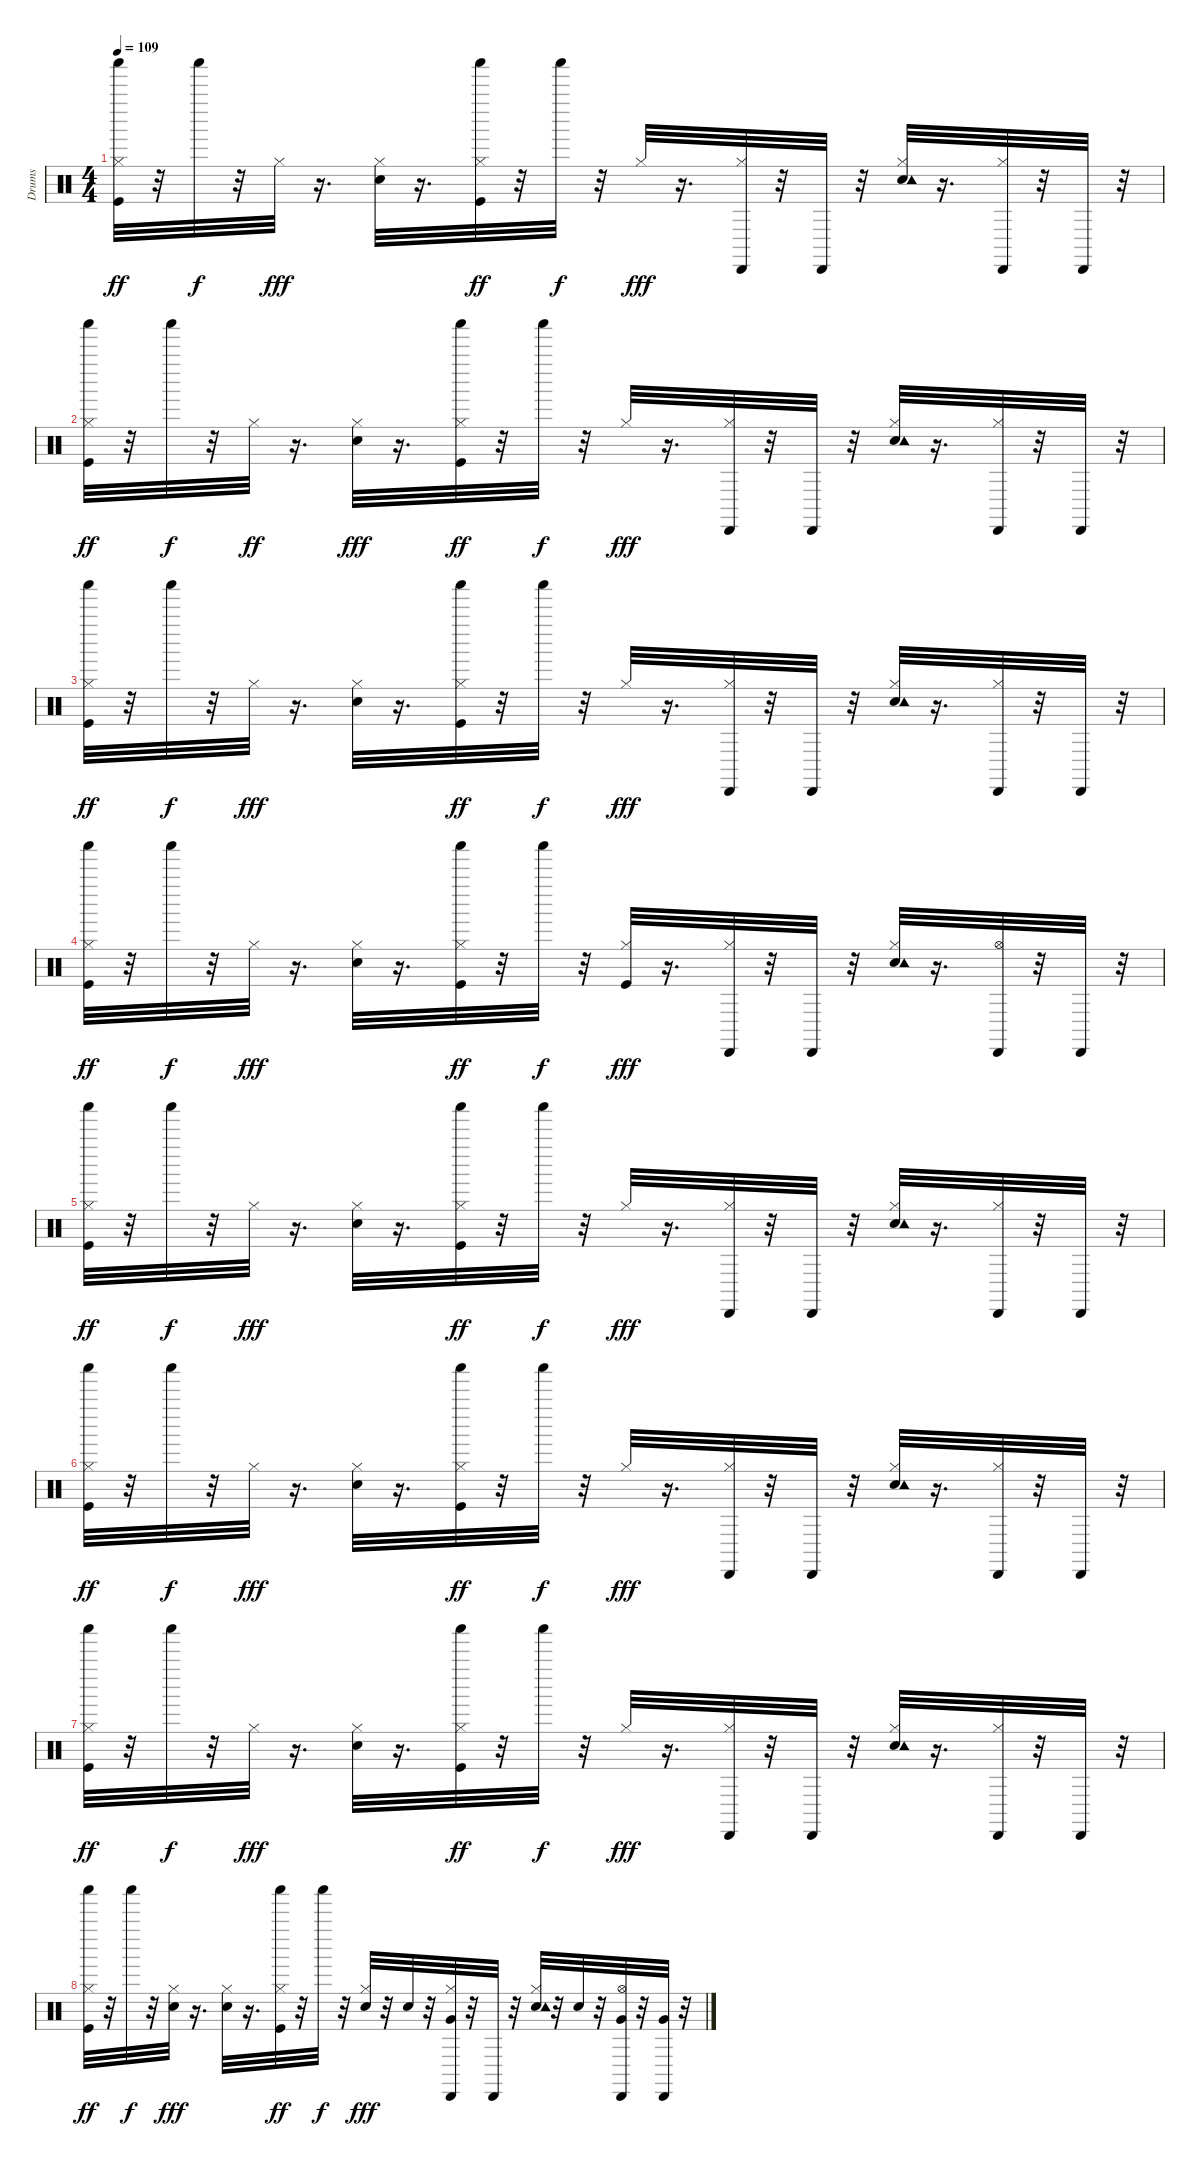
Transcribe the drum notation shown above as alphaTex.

\track ("Drums               " "Drums     ") {instrument percussion}
\staff {score}
\articulation defaults
\ts (4 4)
\tempo 109
\clef neutral
\ks c
("Kick (hit)" "Hi-Hat (closed)" "Shaker (hit)").32{dy ff} r.32 "Shaker (hit)".32{dy f} r.32 "Hi-Hat (closed)".32{dy fff} r.16{d} ("Electric Snare (hit)" "Hi-Hat (closed)").32 r.16{d} ("Kick (hit)" "Hi-Hat (closed)" "Shaker (hit)").32{dy ff} r.32 "Shaker (hit)".32{dy f} r.32 "Hi-Hat (closed)".32{dy fff} r.16{d} ("Hi-Hat (closed)" "Cabasa (hit)").32 r.32 "Cabasa (hit)".32 r.32 ("Electric Snare (hit)" "Hi-Hat (closed)" "Tambourine (hit)").32 r.16{d} ("Hi-Hat (closed)" "Cabasa (hit)").32 r.32 "Cabasa (hit)".32 r.32 |
("Kick (hit)" "Hi-Hat (closed)" "Shaker (hit)").32{dy ff} r.32 "Shaker (hit)".32{dy f} r.32 "Hi-Hat (closed)".32{dy ff} r.16{d} ("Electric Snare (hit)" "Hi-Hat (closed)").32{dy fff} r.16{d} ("Kick (hit)" "Hi-Hat (closed)" "Shaker (hit)").32{dy ff} r.32 "Shaker (hit)".32{dy f} r.32 "Hi-Hat (closed)".32{dy fff} r.16{d} ("Hi-Hat (closed)" "Cabasa (hit)").32 r.32 "Cabasa (hit)".32 r.32 ("Electric Snare (hit)" "Hi-Hat (closed)" "Tambourine (hit)").32 r.16{d} ("Hi-Hat (closed)" "Cabasa (hit)").32 r.32 "Cabasa (hit)".32 r.32 |
("Kick (hit)" "Hi-Hat (closed)" "Shaker (hit)").32{dy ff} r.32 "Shaker (hit)".32{dy f} r.32 "Hi-Hat (closed)".32{dy fff} r.16{d} ("Electric Snare (hit)" "Hi-Hat (closed)").32 r.16{d} ("Kick (hit)" "Hi-Hat (closed)" "Shaker (hit)").32{dy ff} r.32 "Shaker (hit)".32{dy f} r.32 "Hi-Hat (closed)".32{dy fff} r.16{d} ("Hi-Hat (closed)" "Cabasa (hit)").32 r.32 "Cabasa (hit)".32 r.32 ("Electric Snare (hit)" "Hi-Hat (closed)" "Tambourine (hit)").32 r.16{d} ("Hi-Hat (closed)" "Cabasa (hit)").32 r.32 "Cabasa (hit)".32 r.32 |
("Kick (hit)" "Hi-Hat (closed)" "Shaker (hit)").32{dy ff} r.32 "Shaker (hit)".32{dy f} r.32 "Hi-Hat (closed)".32{dy fff} r.16{d} ("Electric Snare (hit)" "Hi-Hat (closed)").32 r.16{d} ("Kick (hit)" "Hi-Hat (closed)" "Shaker (hit)").32{dy ff} r.32 "Shaker (hit)".32{dy f} r.32 ("Kick (hit)" "Hi-Hat (closed)").32{dy fff} r.16{d} ("Hi-Hat (closed)" "Cabasa (hit)").32 r.32 "Cabasa (hit)".32 r.32 ("Electric Snare (hit)" "Hi-Hat (closed)" "Tambourine (hit)").32 r.16{d} ("Hi-Hat (open)" "Cabasa (hit)").32 r.32 "Cabasa (hit)".32 r.32 |
("Kick (hit)" "Hi-Hat (closed)" "Shaker (hit)").32{dy ff} r.32 "Shaker (hit)".32{dy f} r.32 "Hi-Hat (closed)".32{dy fff} r.16{d} ("Electric Snare (hit)" "Hi-Hat (closed)").32 r.16{d} ("Kick (hit)" "Hi-Hat (closed)" "Shaker (hit)").32{dy ff} r.32 "Shaker (hit)".32{dy f} r.32 "Hi-Hat (closed)".32{dy fff} r.16{d} ("Hi-Hat (closed)" "Cabasa (hit)").32 r.32 "Cabasa (hit)".32 r.32 ("Electric Snare (hit)" "Hi-Hat (closed)" "Tambourine (hit)").32 r.16{d} ("Hi-Hat (closed)" "Cabasa (hit)").32 r.32 "Cabasa (hit)".32 r.32 |
("Kick (hit)" "Hi-Hat (closed)" "Shaker (hit)").32{dy ff} r.32 "Shaker (hit)".32{dy f} r.32 "Hi-Hat (closed)".32{dy fff} r.16{d} ("Electric Snare (hit)" "Hi-Hat (closed)").32 r.16{d} ("Kick (hit)" "Hi-Hat (closed)" "Shaker (hit)").32{dy ff} r.32 "Shaker (hit)".32{dy f} r.32 "Hi-Hat (closed)".32{dy fff} r.16{d} ("Hi-Hat (closed)" "Cabasa (hit)").32 r.32 "Cabasa (hit)".32 r.32 ("Electric Snare (hit)" "Hi-Hat (closed)" "Tambourine (hit)").32 r.16{d} ("Hi-Hat (closed)" "Cabasa (hit)").32 r.32 "Cabasa (hit)".32 r.32 |
("Kick (hit)" "Hi-Hat (closed)" "Shaker (hit)").32{dy ff} r.32 "Shaker (hit)".32{dy f} r.32 "Hi-Hat (closed)".32{dy fff} r.16{d} ("Electric Snare (hit)" "Hi-Hat (closed)").32 r.16{d} ("Kick (hit)" "Hi-Hat (closed)" "Shaker (hit)").32{dy ff} r.32 "Shaker (hit)".32{dy f} r.32 "Hi-Hat (closed)".32{dy fff} r.16{d} ("Hi-Hat (closed)" "Cabasa (hit)").32 r.32 "Cabasa (hit)".32 r.32 ("Electric Snare (hit)" "Hi-Hat (closed)" "Tambourine (hit)").32 r.16{d} ("Hi-Hat (closed)" "Cabasa (hit)").32 r.32 "Cabasa (hit)".32 r.32 |
("Kick (hit)" "Hi-Hat (closed)" "Shaker (hit)").32{dy ff} r.32 "Shaker (hit)".32{dy f} r.32 ("Electric Snare (hit)" "Hi-Hat (closed)").32{dy fff} r.16{d} ("Electric Snare (hit)" "Hi-Hat (closed)").32 r.16{d} ("Kick (hit)" "Hi-Hat (closed)" "Shaker (hit)").32{dy ff} r.32 "Shaker (hit)".32{dy f} r.32 ("Electric Snare (hit)" "Hi-Hat (closed)").32{dy fff} r.32 "Electric Snare (hit)".32 r.32 ("Hi-Hat (closed)" "Very Low Tom (hit)" "Cabasa (hit)").32 r.32 "Cabasa (hit)".32 r.32 ("Electric Snare (hit)" "Hi-Hat (closed)" "Tambourine (hit)").32 r.32 "Electric Snare (hit)".32 r.32 ("Very Low Tom (hit)" "Hi-Hat (open)" "Cabasa (hit)").32 r.32 ("Very Low Tom (hit)" "Cabasa (hit)").32 r.32
